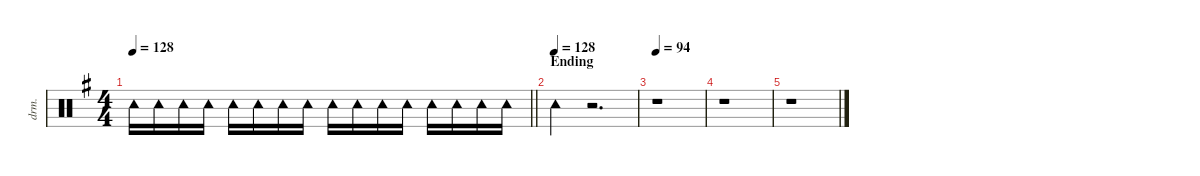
\defaultSystemsLayout 4
\hideDynamics
\bracketExtendMode nobrackets
\otherSystemsTrackNameOrientation horizontal
\track ("Percussion" "drm.") {defaultSystemsLayout 8 instrument percussion}
\staff {score}
\articulation defaults
\ts (4 4)
\tempo 128
\clef neutral
\barLineRight lightlight
\ks eminor "Tambourine (hit)"{acc forcenatural}.16{dy f beam Down} "Tambourine (hit)"{acc forcenatural}.16{beam Down} "Tambourine (hit)"{acc forcenatural}.16{beam Down} "Tambourine (hit)"{acc forcenatural}.16{beam Down} "Tambourine (hit)"{acc forcenatural}.16{dy fff beam Down} "Tambourine (hit)"{acc forcenatural}.16{dy f beam Down} "Tambourine (hit)"{acc forcenatural}.16{beam Down} "Tambourine (hit)"{acc forcenatural}.16{beam Down} "Tambourine (hit)"{acc forcenatural}.16{beam Down} "Tambourine (hit)"{acc forcenatural}.16{beam Down} "Tambourine (hit)"{acc forcenatural}.16{beam Down} "Tambourine (hit)"{acc forcenatural}.16{beam Down} "Tambourine (hit)"{acc forcenatural}.16{dy fff beam Down} "Tambourine (hit)"{acc forcenatural}.16{dy f beam Down} "Tambourine (hit)"{acc forcenatural}.16{beam Down} "Tambourine (hit)"{acc forcenatural}.16{beam Down}
|
\section ("" "Ending")
\tempo (128)
"Tambourine (hit)"{acc forcenatural}.4{beam Down} r.2{d beam Down} |
\tempo 94
r.1{beam Down} |
r.1{beam Down} |
r.1{beam Down}
